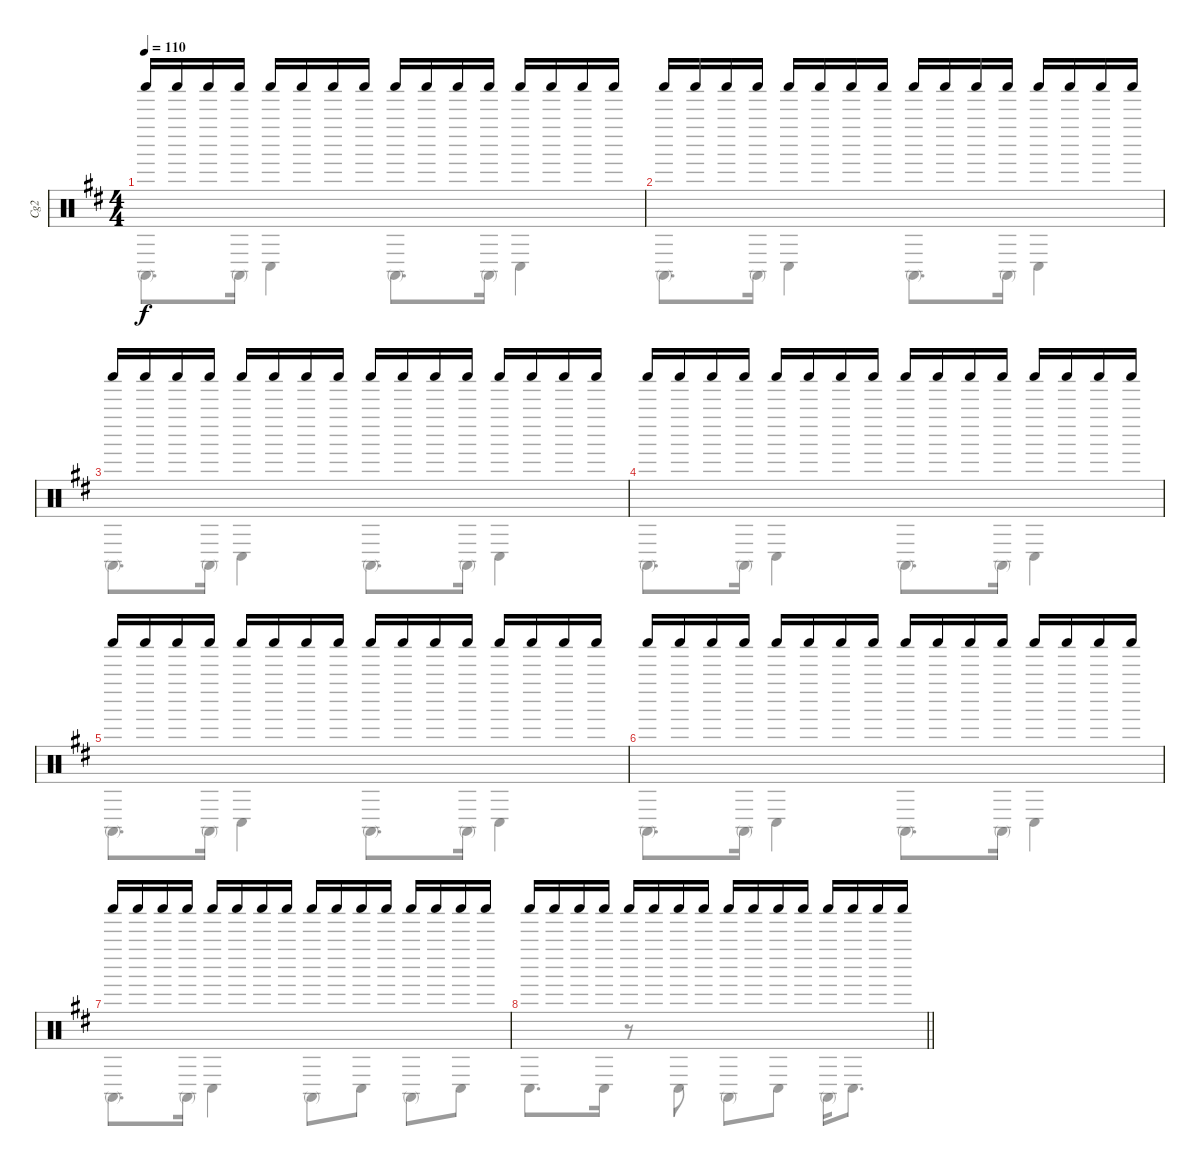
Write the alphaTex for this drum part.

\track ("Cg2" "Cg2") {instrument percussion}
\staff {score}
\articulation defaults
\voice
\ts (4 4)
\tempo 110
\clef neutral
\ks d "Shaker (hit)".16{dy f} "Shaker (hit)".16 "Shaker (hit)".16 "Shaker (hit)".16 "Shaker (hit)".16 "Shaker (hit)".16 "Shaker (hit)".16 "Shaker (hit)".16 "Shaker (hit)".16 "Shaker (hit)".16 "Shaker (hit)".16 "Shaker (hit)".16 "Shaker (hit)".16 "Shaker (hit)".16 "Shaker (hit)".16 "Shaker (hit)".16
|
"Shaker (hit)".16 "Shaker (hit)".16 "Shaker (hit)".16 "Shaker (hit)".16 "Shaker (hit)".16 "Shaker (hit)".16 "Shaker (hit)".16 "Shaker (hit)".16 "Shaker (hit)".16 "Shaker (hit)".16 "Shaker (hit)".16 "Shaker (hit)".16 "Shaker (hit)".16 "Shaker (hit)".16 "Shaker (hit)".16 "Shaker (hit)".16 |
"Shaker (hit)".16 "Shaker (hit)".16 "Shaker (hit)".16 "Shaker (hit)".16 "Shaker (hit)".16 "Shaker (hit)".16 "Shaker (hit)".16 "Shaker (hit)".16 "Shaker (hit)".16 "Shaker (hit)".16 "Shaker (hit)".16 "Shaker (hit)".16 "Shaker (hit)".16 "Shaker (hit)".16 "Shaker (hit)".16 "Shaker (hit)".16 |
"Shaker (hit)".16 "Shaker (hit)".16 "Shaker (hit)".16 "Shaker (hit)".16 "Shaker (hit)".16 "Shaker (hit)".16 "Shaker (hit)".16 "Shaker (hit)".16 "Shaker (hit)".16 "Shaker (hit)".16 "Shaker (hit)".16 "Shaker (hit)".16 "Shaker (hit)".16 "Shaker (hit)".16 "Shaker (hit)".16 "Shaker (hit)".16 |
"Shaker (hit)".16 "Shaker (hit)".16 "Shaker (hit)".16 "Shaker (hit)".16 "Shaker (hit)".16 "Shaker (hit)".16 "Shaker (hit)".16 "Shaker (hit)".16 "Shaker (hit)".16 "Shaker (hit)".16 "Shaker (hit)".16 "Shaker (hit)".16 "Shaker (hit)".16 "Shaker (hit)".16 "Shaker (hit)".16 "Shaker (hit)".16 |
"Shaker (hit)".16 "Shaker (hit)".16 "Shaker (hit)".16 "Shaker (hit)".16 "Shaker (hit)".16 "Shaker (hit)".16 "Shaker (hit)".16 "Shaker (hit)".16 "Shaker (hit)".16 "Shaker (hit)".16 "Shaker (hit)".16 "Shaker (hit)".16 "Shaker (hit)".16 "Shaker (hit)".16 "Shaker (hit)".16 "Shaker (hit)".16 |
"Shaker (hit)".16 "Shaker (hit)".16 "Shaker (hit)".16 "Shaker (hit)".16 "Shaker (hit)".16 "Shaker (hit)".16 "Shaker (hit)".16 "Shaker (hit)".16 "Shaker (hit)".16 "Shaker (hit)".16 "Shaker (hit)".16 "Shaker (hit)".16 "Shaker (hit)".16 "Shaker (hit)".16 "Shaker (hit)".16 "Shaker (hit)".16 |
\barLineRight lightlight "Shaker (hit)".16 "Shaker (hit)".16 "Shaker (hit)".16 "Shaker (hit)".16 "Shaker (hit)".16 "Shaker (hit)".16 "Shaker (hit)".16 "Shaker (hit)".16 "Shaker (hit)".16 "Shaker (hit)".16 "Shaker (hit)".16 "Shaker (hit)".16 "Shaker (hit)".16 "Shaker (hit)".16 "Shaker (hit)".16 "Shaker (hit)".16
\voice
\clef neutral
\ottava regular
\simile none
\ks d "Conga high (mute)".8{d dy f} "Conga high (mute)".16 "Conga low (hit)".4 "Conga high (mute)".8{d} "Conga high (mute)".16 "Conga low (hit)".4
|
"Conga high (mute)".8{d} "Conga high (mute)".16 "Conga low (hit)".4 "Conga high (mute)".8{d} "Conga high (mute)".16 "Conga low (hit)".4 |
"Conga high (mute)".8{d} "Conga high (mute)".16 "Conga low (hit)".4 "Conga high (mute)".8{d} "Conga high (mute)".16 "Conga low (hit)".4 |
"Conga high (mute)".8{d} "Conga high (mute)".16 "Conga low (hit)".4 "Conga high (mute)".8{d} "Conga high (mute)".16 "Conga low (hit)".4 |
"Conga high (mute)".8{d} "Conga high (mute)".16 "Conga low (hit)".4 "Conga high (mute)".8{d} "Conga high (mute)".16 "Conga low (hit)".4 |
"Conga high (mute)".8{d} "Conga high (mute)".16 "Conga low (hit)".4 "Conga high (mute)".8{d} "Conga high (mute)".16 "Conga low (hit)".4 |
"Conga high (mute)".8{d} "Conga high (mute)".16 "Conga low (hit)".4 "Conga high (mute)".8 "Conga low (hit)".8 "Conga high (mute)".8 "Conga low (hit)".8 |
\barLineRight lightlight "Conga low (hit)".8{d} "Conga low (hit)".16
r.8 "Conga low (hit)".8 "Conga high (mute)".8 "Conga low (hit)".8 "Conga high (mute)".16 "Conga low (hit)".8{d}
